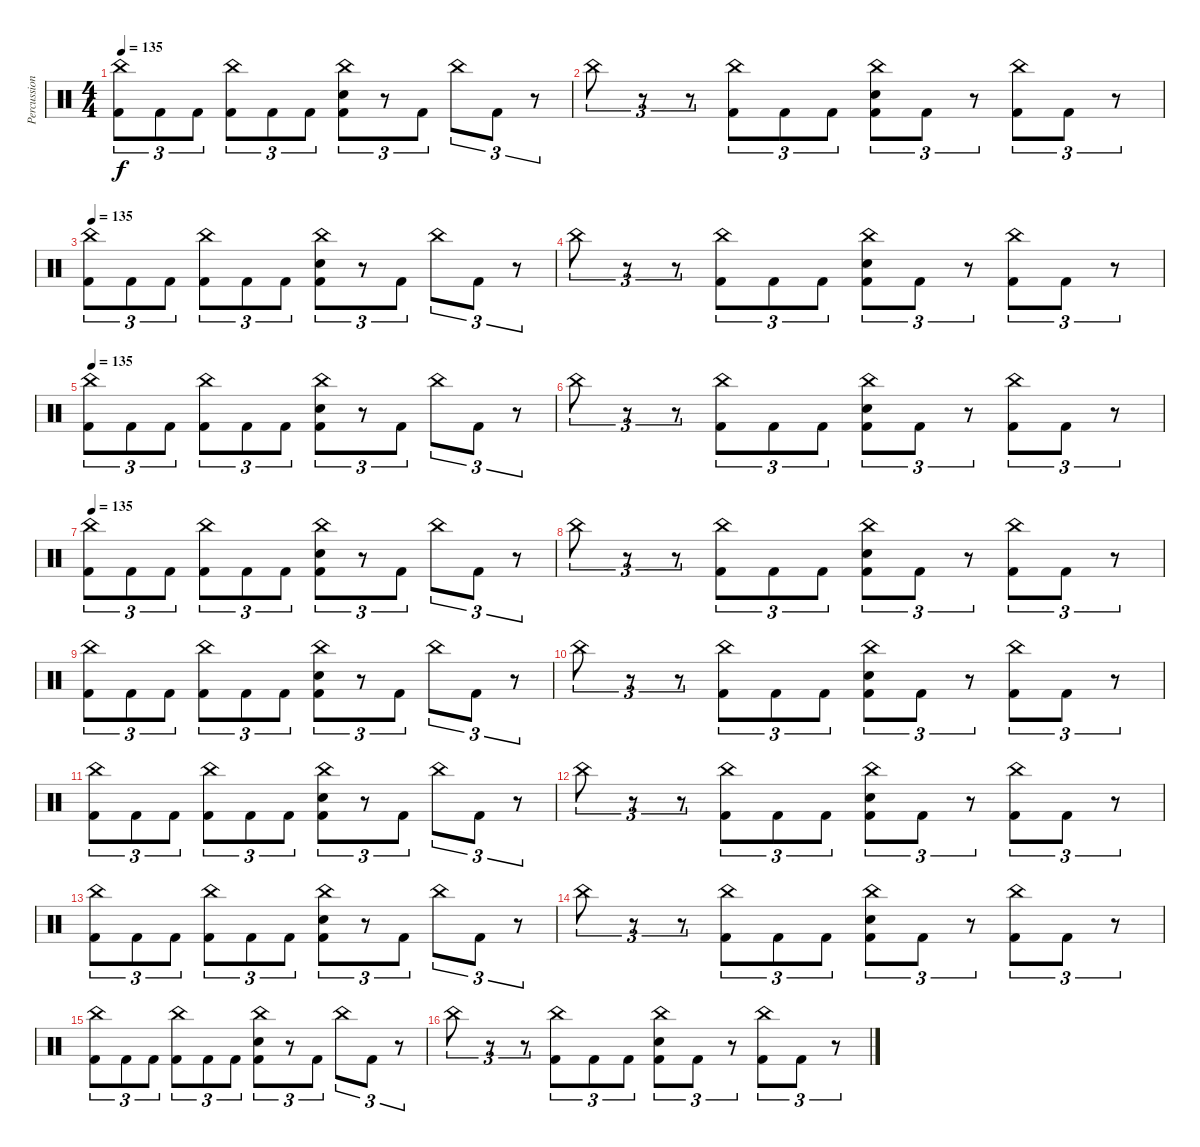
\track ("Percussion" "Percussion") {instrument percussion}
\staff {score}
\articulation defaults
\ts (4 4)
\tempo 135
\clef neutral
\ks c
("China (hit)" "Kick (hit) 2").8{tu (3 2) dy f} "Kick (hit) 2".8{tu (3 2)} "Kick (hit) 2".8{tu (3 2)} ("China (hit)" "Kick (hit) 2").8{tu (3 2)} "Kick (hit) 2".8{tu (3 2)} "Kick (hit) 2".8{tu (3 2)} ("China (hit)" "Electric Snare (hit)" "Kick (hit) 2").8{tu (3 2)} r.8{tu (3 2)} "Kick (hit) 2".8{tu (3 2)} "China (hit)".8{tu (3 2)} "Kick (hit) 2".8{tu (3 2)} r.8{tu (3 2)} |
"China (hit)".8{tu (3 2)} r.8{tu (3 2)} r.8{tu (3 2)} ("China (hit)" "Kick (hit) 2").8{tu (3 2)} "Kick (hit) 2".8{tu (3 2)} "Kick (hit) 2".8{tu (3 2)} ("China (hit)" "Electric Snare (hit)" "Kick (hit) 2").8{tu (3 2)} "Kick (hit) 2".8{tu (3 2)} r.8{tu (3 2)} ("China (hit)" "Kick (hit) 2").8{tu (3 2)} "Kick (hit) 2".8{tu (3 2)} r.8{tu (3 2)} |
\tempo 135
("China (hit)" "Kick (hit) 2").8{tu (3 2)} "Kick (hit) 2".8{tu (3 2)} "Kick (hit) 2".8{tu (3 2)} ("China (hit)" "Kick (hit) 2").8{tu (3 2)} "Kick (hit) 2".8{tu (3 2)} "Kick (hit) 2".8{tu (3 2)} ("China (hit)" "Electric Snare (hit)" "Kick (hit) 2").8{tu (3 2)} r.8{tu (3 2)} "Kick (hit) 2".8{tu (3 2)} "China (hit)".8{tu (3 2)} "Kick (hit) 2".8{tu (3 2)} r.8{tu (3 2)} |
"China (hit)".8{tu (3 2)} r.8{tu (3 2)} r.8{tu (3 2)} ("China (hit)" "Kick (hit) 2").8{tu (3 2)} "Kick (hit) 2".8{tu (3 2)} "Kick (hit) 2".8{tu (3 2)} ("China (hit)" "Electric Snare (hit)" "Kick (hit) 2").8{tu (3 2)} "Kick (hit) 2".8{tu (3 2)} r.8{tu (3 2)} ("China (hit)" "Kick (hit) 2").8{tu (3 2)} "Kick (hit) 2".8{tu (3 2)} r.8{tu (3 2)} |
\tempo 135
("China (hit)" "Kick (hit) 2").8{tu (3 2)} "Kick (hit) 2".8{tu (3 2)} "Kick (hit) 2".8{tu (3 2)} ("China (hit)" "Kick (hit) 2").8{tu (3 2)} "Kick (hit) 2".8{tu (3 2)} "Kick (hit) 2".8{tu (3 2)} ("China (hit)" "Electric Snare (hit)" "Kick (hit) 2").8{tu (3 2)} r.8{tu (3 2)} "Kick (hit) 2".8{tu (3 2)} "China (hit)".8{tu (3 2)} "Kick (hit) 2".8{tu (3 2)} r.8{tu (3 2)} |
"China (hit)".8{tu (3 2)} r.8{tu (3 2)} r.8{tu (3 2)} ("China (hit)" "Kick (hit) 2").8{tu (3 2)} "Kick (hit) 2".8{tu (3 2)} "Kick (hit) 2".8{tu (3 2)} ("China (hit)" "Electric Snare (hit)" "Kick (hit) 2").8{tu (3 2)} "Kick (hit) 2".8{tu (3 2)} r.8{tu (3 2)} ("China (hit)" "Kick (hit) 2").8{tu (3 2)} "Kick (hit) 2".8{tu (3 2)} r.8{tu (3 2)} |
\tempo 135
("China (hit)" "Kick (hit) 2").8{tu (3 2)} "Kick (hit) 2".8{tu (3 2)} "Kick (hit) 2".8{tu (3 2)} ("China (hit)" "Kick (hit) 2").8{tu (3 2)} "Kick (hit) 2".8{tu (3 2)} "Kick (hit) 2".8{tu (3 2)} ("China (hit)" "Electric Snare (hit)" "Kick (hit) 2").8{tu (3 2)} r.8{tu (3 2)} "Kick (hit) 2".8{tu (3 2)} "China (hit)".8{tu (3 2)} "Kick (hit) 2".8{tu (3 2)} r.8{tu (3 2)} |
"China (hit)".8{tu (3 2)} r.8{tu (3 2)} r.8{tu (3 2)} ("China (hit)" "Kick (hit) 2").8{tu (3 2)} "Kick (hit) 2".8{tu (3 2)} "Kick (hit) 2".8{tu (3 2)} ("China (hit)" "Electric Snare (hit)" "Kick (hit) 2").8{tu (3 2)} "Kick (hit) 2".8{tu (3 2)} r.8{tu (3 2)} ("China (hit)" "Kick (hit) 2").8{tu (3 2)} "Kick (hit) 2".8{tu (3 2)} r.8{tu (3 2)} |
("China (hit)" "Kick (hit) 2").8{tu (3 2)} "Kick (hit) 2".8{tu (3 2)} "Kick (hit) 2".8{tu (3 2)} ("China (hit)" "Kick (hit) 2").8{tu (3 2)} "Kick (hit) 2".8{tu (3 2)} "Kick (hit) 2".8{tu (3 2)} ("China (hit)" "Electric Snare (hit)" "Kick (hit) 2").8{tu (3 2)} r.8{tu (3 2)} "Kick (hit) 2".8{tu (3 2)} "China (hit)".8{tu (3 2)} "Kick (hit) 2".8{tu (3 2)} r.8{tu (3 2)} |
"China (hit)".8{tu (3 2)} r.8{tu (3 2)} r.8{tu (3 2)} ("China (hit)" "Kick (hit) 2").8{tu (3 2)} "Kick (hit) 2".8{tu (3 2)} "Kick (hit) 2".8{tu (3 2)} ("China (hit)" "Electric Snare (hit)" "Kick (hit) 2").8{tu (3 2)} "Kick (hit) 2".8{tu (3 2)} r.8{tu (3 2)} ("China (hit)" "Kick (hit) 2").8{tu (3 2)} "Kick (hit) 2".8{tu (3 2)} r.8{tu (3 2)} |
("China (hit)" "Kick (hit) 2").8{tu (3 2)} "Kick (hit) 2".8{tu (3 2)} "Kick (hit) 2".8{tu (3 2)} ("China (hit)" "Kick (hit) 2").8{tu (3 2)} "Kick (hit) 2".8{tu (3 2)} "Kick (hit) 2".8{tu (3 2)} ("China (hit)" "Electric Snare (hit)" "Kick (hit) 2").8{tu (3 2)} r.8{tu (3 2)} "Kick (hit) 2".8{tu (3 2)} "China (hit)".8{tu (3 2)} "Kick (hit) 2".8{tu (3 2)} r.8{tu (3 2)} |
"China (hit)".8{tu (3 2)} r.8{tu (3 2)} r.8{tu (3 2)} ("China (hit)" "Kick (hit) 2").8{tu (3 2)} "Kick (hit) 2".8{tu (3 2)} "Kick (hit) 2".8{tu (3 2)} ("China (hit)" "Electric Snare (hit)" "Kick (hit) 2").8{tu (3 2)} "Kick (hit) 2".8{tu (3 2)} r.8{tu (3 2)} ("China (hit)" "Kick (hit) 2").8{tu (3 2)} "Kick (hit) 2".8{tu (3 2)} r.8{tu (3 2)} |
("China (hit)" "Kick (hit) 2").8{tu (3 2)} "Kick (hit) 2".8{tu (3 2)} "Kick (hit) 2".8{tu (3 2)} ("China (hit)" "Kick (hit) 2").8{tu (3 2)} "Kick (hit) 2".8{tu (3 2)} "Kick (hit) 2".8{tu (3 2)} ("China (hit)" "Electric Snare (hit)" "Kick (hit) 2").8{tu (3 2)} r.8{tu (3 2)} "Kick (hit) 2".8{tu (3 2)} "China (hit)".8{tu (3 2)} "Kick (hit) 2".8{tu (3 2)} r.8{tu (3 2)} |
"China (hit)".8{tu (3 2)} r.8{tu (3 2)} r.8{tu (3 2)} ("China (hit)" "Kick (hit) 2").8{tu (3 2)} "Kick (hit) 2".8{tu (3 2)} "Kick (hit) 2".8{tu (3 2)} ("China (hit)" "Electric Snare (hit)" "Kick (hit) 2").8{tu (3 2)} "Kick (hit) 2".8{tu (3 2)} r.8{tu (3 2)} ("China (hit)" "Kick (hit) 2").8{tu (3 2)} "Kick (hit) 2".8{tu (3 2)} r.8{tu (3 2)} |
("China (hit)" "Kick (hit) 2").8{tu (3 2)} "Kick (hit) 2".8{tu (3 2)} "Kick (hit) 2".8{tu (3 2)} ("China (hit)" "Kick (hit) 2").8{tu (3 2)} "Kick (hit) 2".8{tu (3 2)} "Kick (hit) 2".8{tu (3 2)} ("China (hit)" "Electric Snare (hit)" "Kick (hit) 2").8{tu (3 2)} r.8{tu (3 2)} "Kick (hit) 2".8{tu (3 2)} "China (hit)".8{tu (3 2)} "Kick (hit) 2".8{tu (3 2)} r.8{tu (3 2)} |
"China (hit)".8{tu (3 2)} r.8{tu (3 2)} r.8{tu (3 2)} ("China (hit)" "Kick (hit) 2").8{tu (3 2)} "Kick (hit) 2".8{tu (3 2)} "Kick (hit) 2".8{tu (3 2)} ("China (hit)" "Electric Snare (hit)" "Kick (hit) 2").8{tu (3 2)} "Kick (hit) 2".8{tu (3 2)} r.8{tu (3 2)} ("China (hit)" "Kick (hit) 2").8{tu (3 2)} "Kick (hit) 2".8{tu (3 2)} r.8{tu (3 2)}
